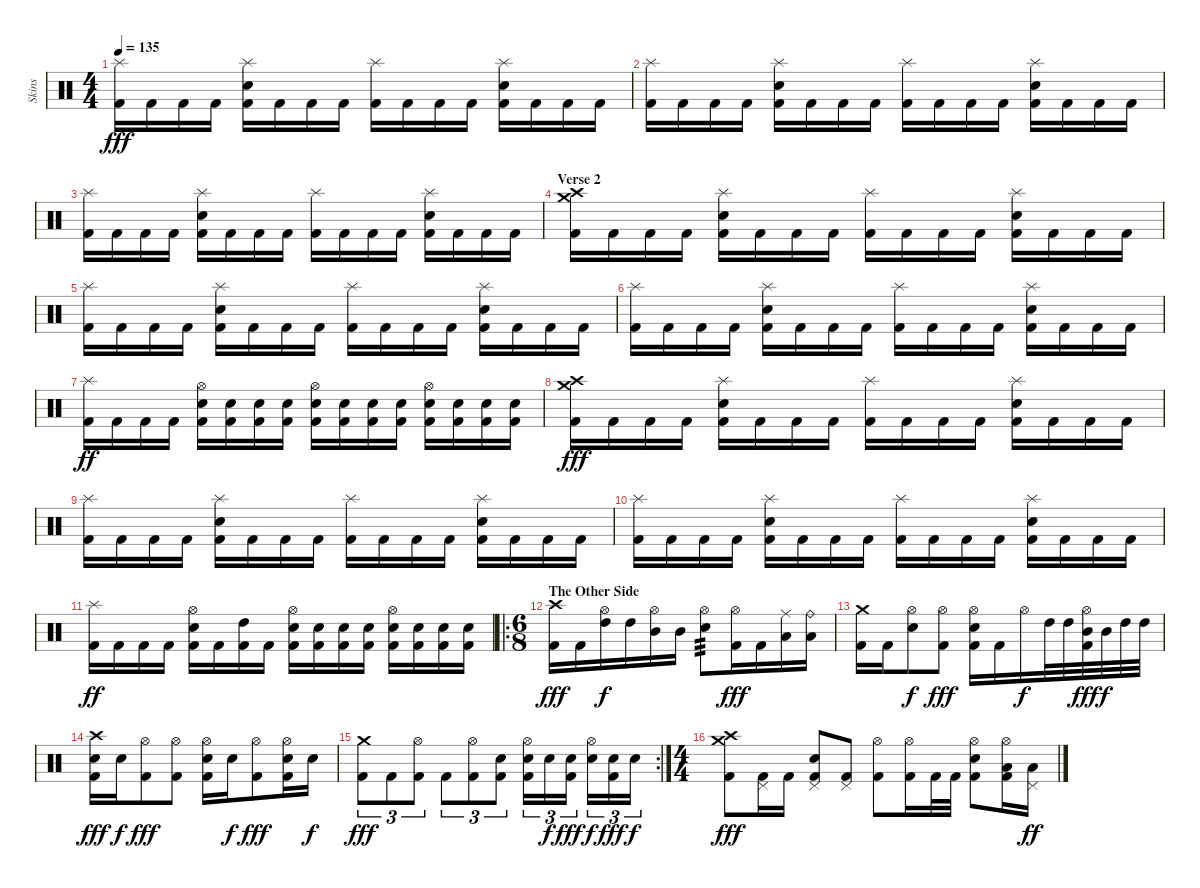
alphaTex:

\track ("Skins" "Skins") {instrument percussion}
\staff {score}
\articulation defaults
\ts (4 4)
\tempo 135
\clef neutral
\ks c
("Splash (hit)" "Kick (hit) 2").16{dy fff} "Kick (hit) 2".16 "Kick (hit) 2".16 "Kick (hit) 2".16 ("Splash (hit)" "Snare (hit) 2" "Kick (hit) 2").16 "Kick (hit) 2".16 "Kick (hit) 2".16 "Kick (hit) 2".16 ("Splash (hit)" "Kick (hit) 2").16 "Kick (hit) 2".16 "Kick (hit) 2".16 "Kick (hit) 2".16 ("Splash (hit)" "Snare (hit) 2" "Kick (hit) 2").16 "Kick (hit) 2".16 "Kick (hit) 2".16 "Kick (hit) 2".16 |
("Splash (hit)" "Kick (hit) 2").16 "Kick (hit) 2".16 "Kick (hit) 2".16 "Kick (hit) 2".16 ("Splash (hit)" "Snare (hit) 2" "Kick (hit) 2").16 "Kick (hit) 2".16 "Kick (hit) 2".16 "Kick (hit) 2".16 ("Splash (hit)" "Kick (hit) 2").16 "Kick (hit) 2".16 "Kick (hit) 2".16 "Kick (hit) 2".16 ("Splash (hit)" "Snare (hit) 2" "Kick (hit) 2").16 "Kick (hit) 2".16 "Kick (hit) 2".16 "Kick (hit) 2".16 |
("Splash (hit)" "Kick (hit) 2").16 "Kick (hit) 2".16 "Kick (hit) 2".16 "Kick (hit) 2".16 ("Splash (hit)" "Snare (hit) 2" "Kick (hit) 2").16 "Kick (hit) 2".16 "Kick (hit) 2".16 "Kick (hit) 2".16 ("Splash (hit)" "Kick (hit) 2").16 "Kick (hit) 2".16 "Kick (hit) 2".16 "Kick (hit) 2".16 ("Splash (hit)" "Snare (hit) 2" "Kick (hit) 2").16 "Kick (hit) 2".16 "Kick (hit) 2".16 "Kick (hit) 2".16 |
\section ("" "Verse 2")
("Crash medium (hit)" "Crash high (hit)" "Kick (hit) 2").16 "Kick (hit) 2".16 "Kick (hit) 2".16 "Kick (hit) 2".16 ("Splash (hit)" "Snare (hit) 2" "Kick (hit) 2").16 "Kick (hit) 2".16 "Kick (hit) 2".16 "Kick (hit) 2".16 ("Splash (hit)" "Kick (hit) 2").16 "Kick (hit) 2".16 "Kick (hit) 2".16 "Kick (hit) 2".16 ("Splash (hit)" "Snare (hit) 2" "Kick (hit) 2").16 "Kick (hit) 2".16 "Kick (hit) 2".16 "Kick (hit) 2".16 |
("Splash (hit)" "Kick (hit) 2").16 "Kick (hit) 2".16 "Kick (hit) 2".16 "Kick (hit) 2".16 ("Splash (hit)" "Snare (hit) 2" "Kick (hit) 2").16 "Kick (hit) 2".16 "Kick (hit) 2".16 "Kick (hit) 2".16 ("Splash (hit)" "Kick (hit) 2").16 "Kick (hit) 2".16 "Kick (hit) 2".16 "Kick (hit) 2".16 ("Splash (hit)" "Snare (hit) 2" "Kick (hit) 2").16 "Kick (hit) 2".16 "Kick (hit) 2".16 "Kick (hit) 2".16 |
("Splash (hit)" "Kick (hit) 2").16 "Kick (hit) 2".16 "Kick (hit) 2".16 "Kick (hit) 2".16 ("Splash (hit)" "Snare (hit) 2" "Kick (hit) 2").16 "Kick (hit) 2".16 "Kick (hit) 2".16 "Kick (hit) 2".16 ("Splash (hit)" "Kick (hit) 2").16 "Kick (hit) 2".16 "Kick (hit) 2".16 "Kick (hit) 2".16 ("Splash (hit)" "Snare (hit) 2" "Kick (hit) 2").16 "Kick (hit) 2".16 "Kick (hit) 2".16 "Kick (hit) 2".16 |
("Splash (hit)" "Kick (hit) 2").16{dy ff} "Kick (hit) 2".16 "Kick (hit) 2".16 "Kick (hit) 2".16 ("Hi-Hat (open)" "Snare (hit) 2" "Kick (hit) 2").16 ("Snare (hit) 2" "Kick (hit) 2").16 ("Snare (hit) 2" "Kick (hit) 2").16 ("Snare (hit) 2" "Kick (hit) 2").16 ("Hi-Hat (open)" "Snare (hit) 2" "Kick (hit) 2").16 ("Snare (hit) 2" "Kick (hit) 2").16 ("Snare (hit) 2" "Kick (hit) 2").16 ("Snare (hit) 2" "Kick (hit) 2").16 ("Hi-Hat (open)" "Snare (hit) 2" "Kick (hit) 2").16 ("Snare (hit) 2" "Kick (hit) 2").16 ("Snare (hit) 2" "Kick (hit) 2").16 ("Snare (hit) 2" "Kick (hit) 2").16 |
("Crash medium (hit)" "Crash high (hit)" "Kick (hit) 2").16{dy fff} "Kick (hit) 2".16 "Kick (hit) 2".16 "Kick (hit) 2".16 ("Splash (hit)" "Snare (hit) 2" "Kick (hit) 2").16 "Kick (hit) 2".16 "Kick (hit) 2".16 "Kick (hit) 2".16 ("Splash (hit)" "Kick (hit) 2").16 "Kick (hit) 2".16 "Kick (hit) 2".16 "Kick (hit) 2".16 ("Splash (hit)" "Snare (hit) 2" "Kick (hit) 2").16 "Kick (hit) 2".16 "Kick (hit) 2".16 "Kick (hit) 2".16 |
("Splash (hit)" "Kick (hit) 2").16 "Kick (hit) 2".16 "Kick (hit) 2".16 "Kick (hit) 2".16 ("Splash (hit)" "Snare (hit) 2" "Kick (hit) 2").16 "Kick (hit) 2".16 "Kick (hit) 2".16 "Kick (hit) 2".16 ("Splash (hit)" "Kick (hit) 2").16 "Kick (hit) 2".16 "Kick (hit) 2".16 "Kick (hit) 2".16 ("Splash (hit)" "Snare (hit) 2" "Kick (hit) 2").16 "Kick (hit) 2".16 "Kick (hit) 2".16 "Kick (hit) 2".16 |
("Splash (hit)" "Kick (hit) 2").16 "Kick (hit) 2".16 "Kick (hit) 2".16 "Kick (hit) 2".16 ("Splash (hit)" "Snare (hit) 2" "Kick (hit) 2").16 "Kick (hit) 2".16 "Kick (hit) 2".16 "Kick (hit) 2".16 ("Splash (hit)" "Kick (hit) 2").16 "Kick (hit) 2".16 "Kick (hit) 2".16 "Kick (hit) 2".16 ("Splash (hit)" "Snare (hit) 2" "Kick (hit) 2").16 "Kick (hit) 2".16 "Kick (hit) 2".16 "Kick (hit) 2".16 |
("Splash (hit)" "Kick (hit) 2").16{dy ff} "Kick (hit) 2".16 "Kick (hit) 2".16 "Kick (hit) 2".16 ("Hi-Hat (open)" "Snare (hit) 2" "Kick (hit) 2").16 "Kick (hit) 2".16 ("High Tom (hit)" "Kick (hit) 2").16 "Kick (hit) 2".16 ("Hi-Hat (open)" "Snare (hit) 2" "Kick (hit) 2").16 ("Snare (hit) 2" "Kick (hit) 2").16 ("Snare (hit) 2" "Kick (hit) 2").16 ("Snare (hit) 2" "Kick (hit) 2").16 ("Hi-Hat (open)" "Snare (hit) 2" "Kick (hit) 2").16 ("Snare (hit) 2" "Kick (hit) 2").16 ("Snare (hit) 2" "Kick (hit) 2").16 ("Snare (hit) 2" "Kick (hit) 2").16 |
\ro
\ts (6 8)
\section ("" "The Other Side")
("Crash high (hit)" "Kick (hit) 2").16{dy fff} "Kick (hit) 2".16 ("Hi-Hat (open)" "High Tom (hit)").16{dy f} "High Tom (hit)".16 ("Hi-Hat (open)" "Mid Tom (hit)").16 "Mid Tom (hit)".16 ("Hi-Hat (open)" "Snare (hit) 2").8{tp 3} ("Hi-Hat (open)" "Kick (hit) 2").16{dy fff} "Kick (hit) 2".16 ("Ride (middle)" "Low Tom (hit)").16 ("Ride (bell)" "Low Tom (hit)").16 |
("Crash medium (hit)" "Kick (hit) 2").16 "Kick (hit) 2".16 ("Hi-Hat (open)" "Snare (hit) 2").8{dy f} ("Hi-Hat (open)" "Kick (hit) 2").8{dy fff} ("Hi-Hat (open)" "Snare (hit) 2" "Kick (hit) 2").16 "Kick (hit) 2".16 "Hi-Hat (open)".16{dy f} "High Tom (hit)".32 "High Tom (hit)".32 ("Hi-Hat (open)" "Mid Tom (hit)" "Kick (hit) 2").32{dy fff} "Mid Tom (hit)".32{dy f} "High Tom (hit)".32 "High Tom (hit)".32 |
("Crash high (hit)" "Snare (hit) 2" "Kick (hit) 2").16{dy fff} "Snare (hit) 2".16{dy f} ("Hi-Hat (open)" "Kick (hit) 2").8{dy fff} ("Hi-Hat (open)" "Kick (hit) 2").8 ("Hi-Hat (open)" "Snare (hit) 2" "Kick (hit) 2").16 "Snare (hit) 2".16{dy f} ("Hi-Hat (open)" "Kick (hit) 2").8{dy fff} ("Hi-Hat (open)" "Snare (hit) 2" "Kick (hit) 2").16 "Snare (hit) 2".16{dy f} |
\rc 2
("Crash medium (hit)" "Kick (hit) 2").8{tu (3 2) dy fff} "Kick (hit) 2".8{tu (3 2)} ("Hi-Hat (open)" "Kick (hit) 2").8{tu (3 2)} "Kick (hit) 2".8{tu (3 2)} ("Hi-Hat (open)" "Kick (hit) 2").8{tu (3 2)} ("Snare (hit) 2" "Kick (hit) 2").8{tu (3 2)} ("Hi-Hat (open)" "Snare (hit) 2" "Kick (hit) 2").16{tu (3 2)} "Snare (hit) 2".16{tu (3 2) dy f} ("Snare (hit) 2" "Kick (hit) 2").16{tu (3 2) dy fff} ("Hi-Hat (open)" "Snare (hit) 2").16{tu (3 2) dy f} ("Snare (hit) 2" "Kick (hit) 2").16{tu (3 2) dy fff} "Snare (hit) 2".16{tu (3 2) dy f} |
\ts (4 4)
("Crash medium (hit)" "Crash high (hit)" "Kick (hit) 2").8{dy fff} ("Pedal Hi-Hat (hit)" "Kick (hit) 2").16 "Kick (hit) 2".16 ("Pedal Hi-Hat (hit)" "Snare (hit) 2" "Kick (hit) 2").8 ("Pedal Hi-Hat (hit)" "Kick (hit) 2").8 ("Hi-Hat (open)" "Kick (hit) 2").8 ("Hi-Hat (open)" "Kick (hit) 2").16 "Kick (hit) 2".32 "Kick (hit) 2".32 ("Hi-Hat (open)" "Snare (hit) 2" "Kick (hit) 2").8 ("Hi-Hat (open)" "Low Tom (hit)" "Kick (hit) 2").16 ("Pedal Hi-Hat (hit)" "Low Tom (hit)").16{dy ff}
